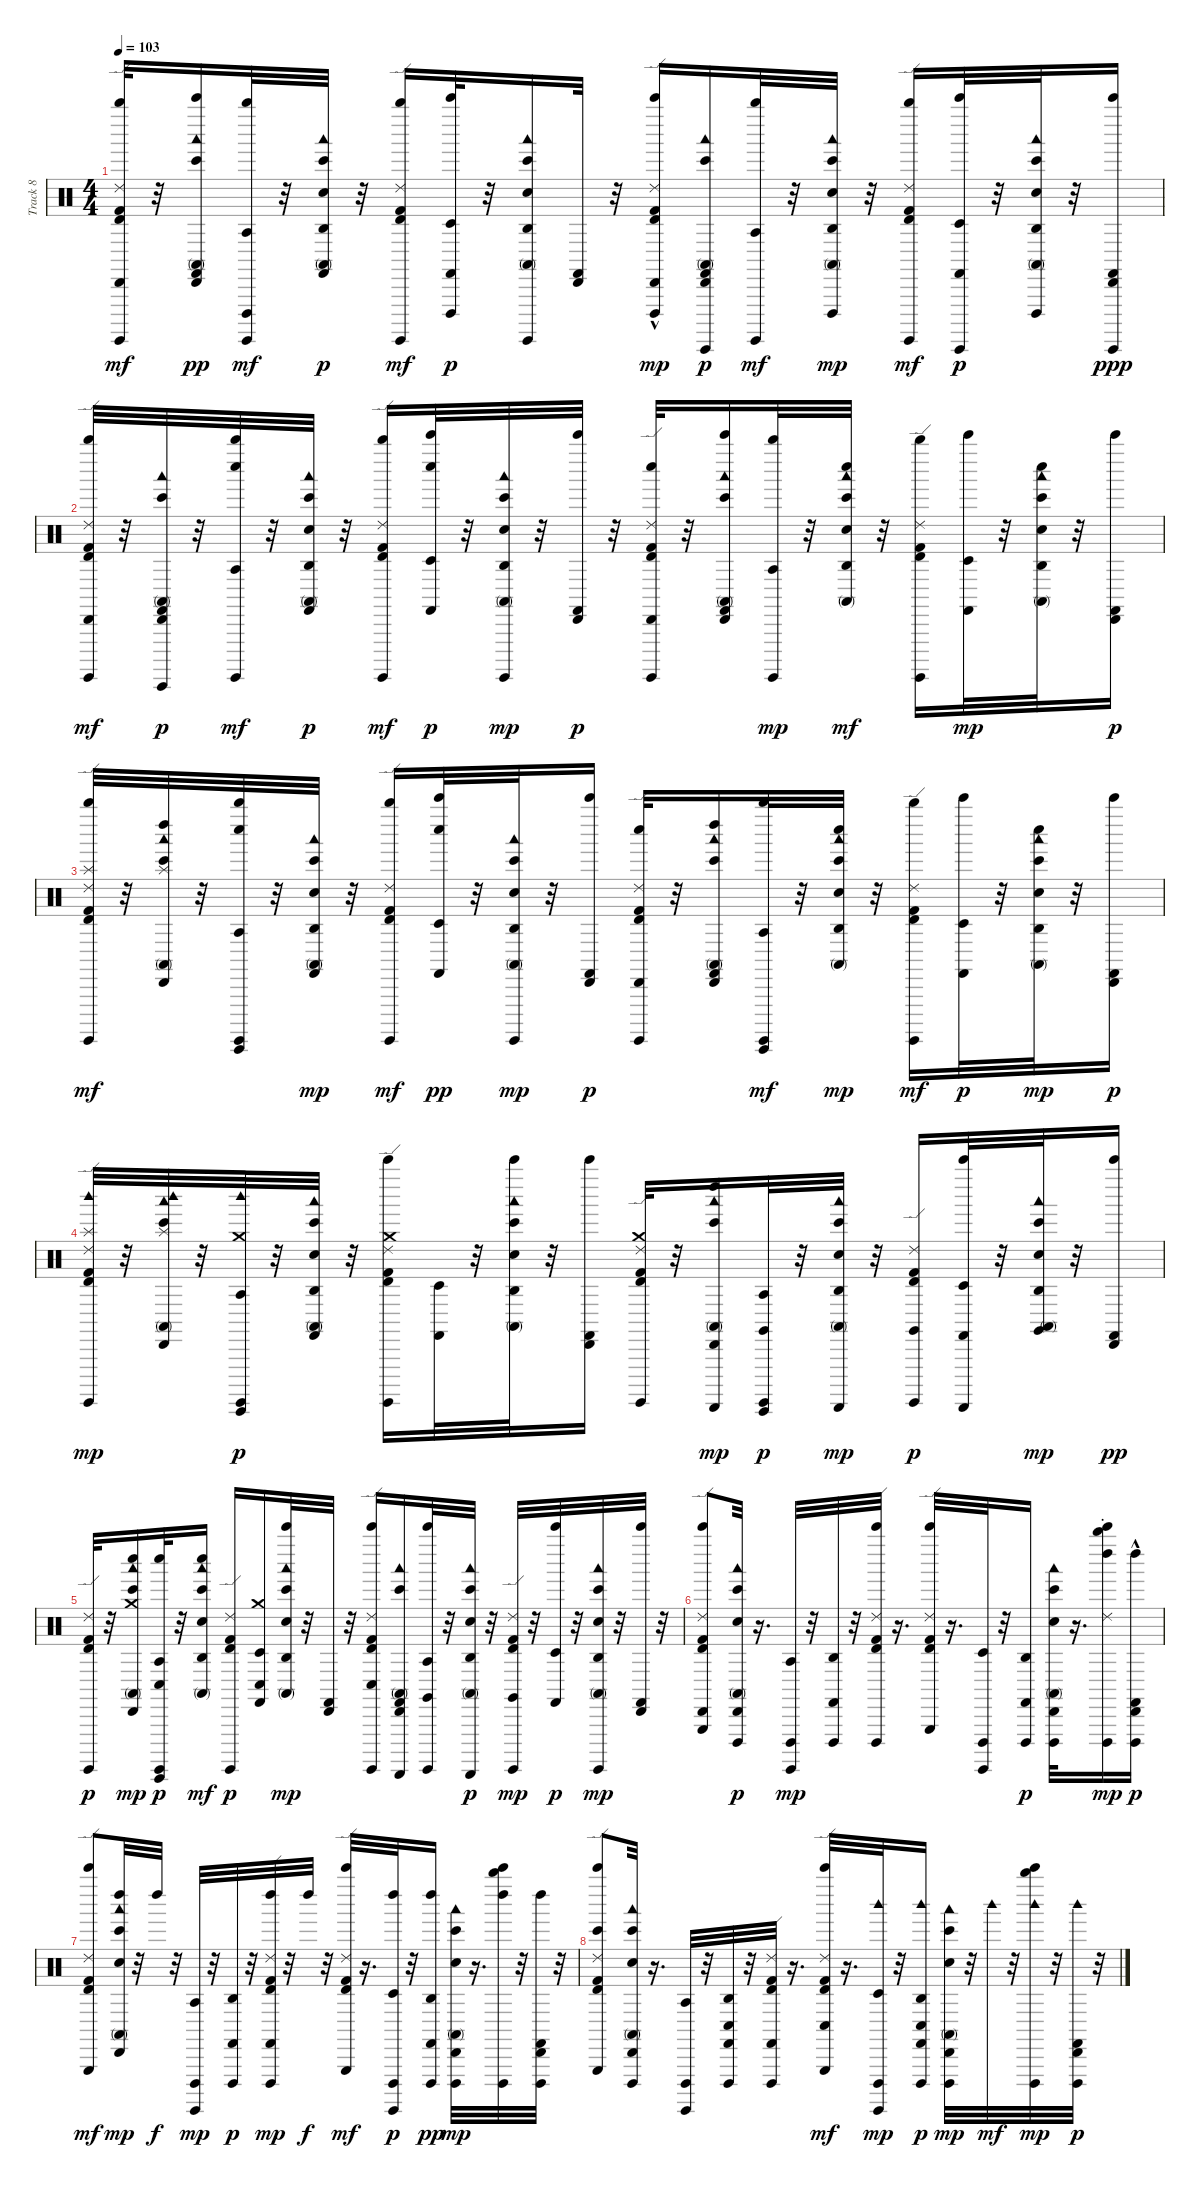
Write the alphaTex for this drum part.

\track ("Track 8" "Track 8") {instrument percussion}
\staff {score}
\articulation defaults
\ts (4 4)
\tempo 103
\clef neutral
\ks c
("Ride (edge) 2" "Cabasa (hit)" "Timbale high (hit)" "Kick (hit) 2" "Surdo (hit)" "Whistle high (hit)").32{dy mf} r.32 ("Bongo High (hit)" "Cabasa (hit)" "Conga high (mute)" "Woodblock low (hit)" "Castanets (hit)" "Bell Tree (hit)").16{dy pp} ("Agogo tow (hit)" "Cuica (open)" "Surdo (hit)" "Whistle high (hit)").32{dy mf} r.32 ("Bongo High (hit)" "Conga high (mute)" "Agogo high (hit)" "Woodblock low (hit)" "Hand Clap (hit)" "Castanets (hit)").32{dy p} r.32 ("Ride (edge) 2" "Timbale high (hit)" "Kick (hit) 2" "Surdo (hit)" "Whistle high (hit)").16{dy mf} ("Timbale low (hit)" "Cuica (open)" "Castanets (hit)" "Bell Tree (hit)").32{dy p} r.32 ("Bongo High (hit)" "Agogo high (hit)" "Conga high (mute)" "Woodblock low (hit)" "Hand Clap (hit)" "Surdo (hit)").16 ("Cabasa (hit)" "Castanets (hit)").32 r.32 ("Ride (edge) 2" "Cabasa (hit)" "Timbale high (hit)" "Kick (hit) 2" "Bell Tree (hit)"{hac} "Cuica (open)").16{dy mp} ("Bongo High (hit)" "Cabasa (hit)" "Conga high (mute)" "Woodblock low (hit)" "Guiro (hit)" "Castanets (hit)").16{dy p} ("Agogo tow (hit)" "Surdo (hit)" "Whistle high (hit)").32{dy mf} r.32 ("Bongo High (hit)" "Conga high (mute)" "Agogo high (hit)" "Woodblock low (hit)" "Hand Clap (hit)" "Cuica (open)").32{dy mp} r.32 ("Ride (edge) 2" "Timbale high (hit)" "Kick (hit) 2" "Surdo (hit)" "Whistle high (hit)").16{dy mf} ("Timbale low (hit)" "Guiro (hit)" "Castanets (hit)" "Bell Tree (hit)").32{dy p} r.32 ("Bongo High (hit)" "Agogo high (hit)" "Conga high (mute)" "Woodblock low (hit)" "Hand Clap (hit)" "Cuica (open)").32 r.32 ("Cabasa (hit)" "Guiro (hit)" "Castanets (hit)" "Bell Tree (hit)").16{dy ppp} |
("Ride (edge) 2" "Cabasa (hit)" "Timbale high (hit)" "Kick (hit) 2" "Surdo (hit)" "Whistle high (hit)").32{dy mf} r.32 ("Bongo High (hit)" "Cabasa (hit)" "Conga high (mute)" "Woodblock low (hit)" "Guiro (hit)" "Castanets (hit)").32{dy p} r.32 ("Agogo tow (hit)" "Whistle low (hit)" "Surdo (hit)" "Whistle high (hit)").32{dy mf} r.32 ("Bongo High (hit)" "Conga high (mute)" "Agogo high (hit)" "Woodblock low (hit)" "Hand Clap (hit)" "Castanets (hit)").32{dy p} r.32 ("Ride (edge) 2" "Timbale high (hit)" "Kick (hit) 2" "Surdo (hit)" "Whistle high (hit)").16{dy mf} ("Timbale low (hit)" "Whistle low (hit)" "Castanets (hit)" "Bell Tree (hit)").32{dy p} r.32 ("Bongo High (hit)" "Agogo high (hit)" "Conga high (mute)" "Woodblock low (hit)" "Hand Clap (hit)" "Surdo (hit)").32{dy mp} r.32 ("Cabasa (hit)" "Castanets (hit)" "Bell Tree (hit)").32{dy p} r.32 ("Ride (edge) 2" "Cabasa (hit)" "Timbale high (hit)" "Kick (hit) 2" "Whistle low (hit)" "Surdo (hit)").32 r.32 ("Bongo High (hit)" "Cabasa (hit)" "Conga high (mute)" "Woodblock low (hit)" "Castanets (hit)" "Bell Tree (hit)").16 ("Agogo tow (hit)" "Surdo (hit)" "Whistle high (hit)").32{dy mp} r.32 ("Bongo High (hit)" "Conga high (mute)" "Agogo high (hit)" "Woodblock low (hit)" "Hand Clap (hit)" "Whistle low (hit)").32{dy mf} r.32 ("Ride (edge) 2" "Timbale high (hit)" "Kick (hit) 2" "Surdo (hit)" "Whistle high (hit)").16 ("Timbale low (hit)" "Castanets (hit)" "Bell Tree (hit)").32{dy mp} r.32 ("Bongo High (hit)" "Conga high (mute)" "Agogo high (hit)" "Woodblock low (hit)" "Hand Clap (hit)" "Whistle low (hit)").32 r.32 ("Cabasa (hit)" "Castanets (hit)" "Bell Tree (hit)").16{dy p} |
("Ride (edge) 2" "Timbale high (hit)" "Kick (hit) 2" "Splash (hit)" "Surdo (hit)" "Whistle high (hit)").32{dy mf} r.32 ("Bongo High (hit)" "Cabasa (hit)" "Conga high (mute)" "Woodblock low (hit)" "Splash (hit)" "Left Maraca (hit)").32 r.32 ("Agogo tow (hit)" "Whistle low (hit)" "Guiro (hit)" "Surdo (hit)" "Whistle high (hit)").32 r.32 ("Bongo High (hit)" "Conga high (mute)" "Agogo high (hit)" "Woodblock low (hit)" "Castanets (hit)" "Hand Clap (hit)").32{dy mp} r.32 ("Ride (edge) 2" "Timbale high (hit)" "Kick (hit) 2" "Surdo (hit)" "Whistle high (hit)").16{dy mf} ("Timbale low (hit)" "Whistle low (hit)" "Castanets (hit)" "Bell Tree (hit)").32{dy pp} r.32 ("Bongo High (hit)" "Agogo high (hit)" "Conga high (mute)" "Woodblock low (hit)" "Hand Clap (hit)" "Surdo (hit)").32{dy mp} r.32 ("Cabasa (hit)" "Castanets (hit)" "Bell Tree (hit)").16{dy p} ("Ride (edge) 2" "Cabasa (hit)" "Timbale high (hit)" "Kick (hit) 2" "Whistle low (hit)" "Surdo (hit)").32 r.32 ("Bongo High (hit)" "Cabasa (hit)" "Conga high (mute)" "Woodblock low (hit)" "Left Maraca (hit)" "Castanets (hit)").16 ("Agogo tow (hit)" "Guiro (hit)" "Surdo (hit)" "Whistle high (hit)").32{dy mf} r.32 ("Bongo High (hit)" "Conga high (mute)" "Agogo high (hit)" "Woodblock low (hit)" "Hand Clap (hit)" "Whistle low (hit)").32{dy mp} r.32 ("Ride (edge) 2" "Timbale high (hit)" "Kick (hit) 2" "Surdo (hit)" "Whistle high (hit)").16{dy mf} ("Timbale low (hit)" "Castanets (hit)" "Bell Tree (hit)").32{dy p} r.32 ("Bongo High (hit)" "Conga high (mute)" "Agogo high (hit)" "Woodblock low (hit)" "Hand Clap (hit)" "Whistle low (hit)").32{dy mp} r.32 ("Cabasa (hit)" "Castanets (hit)" "Bell Tree (hit)").16{dy p} |
("Ride (edge) 2" "Timbale high (hit)" "Kick (hit) 2" "Woodblock high (hit)" "Splash (hit)" "Surdo (hit)").32{dy mp} r.32 ("Bongo High (hit)" "Cabasa (hit)" "Conga high (mute)" "Woodblock low (hit)" "Woodblock high (hit)" "Splash (hit)").32 r.32 ("Agogo tow (hit)" "Woodblock high (hit)" "Guiro (hit)" "Crash medium (hit)" "Surdo (hit)").32{dy p} r.32 ("Bongo High (hit)" "Conga high (mute)" "Agogo high (hit)" "Woodblock low (hit)" "Hand Clap (hit)" "Castanets (hit)").32 r.32 ("Ride (edge) 2" "Timbale high (hit)" "Kick (hit) 2" "Bell Tree (hit)" "Crash medium (hit)" "Surdo (hit)").16 ("Timbale low (hit)" "Castanets (hit)").32 r.32 ("Conga high (mute)" "Bongo High (hit)" "Agogo high (hit)" "Woodblock low (hit)" "Hand Clap (hit)" "Bell Tree (hit)").32 r.32 ("Cabasa (hit)" "Castanets (hit)" "Bell Tree (hit)").16 ("Ride (edge) 2" "Timbale high (hit)" "Kick (hit) 2" "Crash medium (hit)" "Surdo (hit)").32 r.32 ("Conga high (mute)" "Cabasa (hit)" "Bongo High (hit)" "Woodblock low (hit)" "Guiro (scrap-return)" "Left Maraca (hit)").16{dy mp} ("Agogo tow (hit)" "Claves (hit)" "Guiro (hit)" "Surdo (hit)").32{dy p} r.32 ("Conga high (mute)" "Bongo High (hit)" "Agogo high (hit)" "Woodblock low (hit)" "Hand Clap (hit)" "Guiro (scrap-return)").32{dy mp} r.32 ("Ride (edge) 2" "Timbale high (hit)" "Kick (hit) 2" "Claves (hit)" "Surdo (hit)").16{dy p} ("Timbale low (hit)" "Guiro (scrap-return)" "Castanets (hit)" "Bell Tree (hit)").32 r.32 ("Conga high (mute)" "Bongo High (hit)" "Agogo high (hit)" "Woodblock low (hit)" "Hand Clap (hit)" "Claves (hit)").32{dy mp} r.32 ("Cabasa (hit)" "Castanets (hit)" "Bell Tree (hit)").16{dy pp} |
("Ride (edge) 2" "Timbale high (hit)" "Kick (hit) 2" "Surdo (hit)").32{dy p} r.32 ("Bongo High (hit)" "Cabasa (hit)" "Conga high (mute)" "Woodblock low (hit)" "Whistle low (hit)" "Crash medium (hit)").16{dy mp} ("Agogo tow (hit)" "Whistle low (hit)" "Guiro (hit)" "Conga low (hit)" "Surdo (hit)").32{dy p} r.32 ("Conga high (mute)" "Bongo High (hit)" "Agogo high (hit)" "Woodblock low (hit)" "Hand Clap (hit)" "Whistle low (hit)").16{dy mf} ("Ride (edge) 2" "Timbale high (hit)" "Kick (hit) 2" "Surdo (hit)").16{dy p} ("Timbale low (hit)" "Crash medium (hit)" "Conga low (hit)" "Castanets (hit)").16 ("Bongo High (hit)" "Conga high (mute)" "Agogo high (hit)" "Woodblock low (hit)" "Bell Tree (hit)" "Hand Clap (hit)").32{dy mp} r.32 ("Cabasa (hit)" "Castanets (hit)").32 r.32 ("Ride (edge) 2" "Timbale high (hit)" "Kick (hit) 2" "Bell Tree (hit)" "Conga low (hit)" "Surdo (hit)").16 ("Conga high (mute)" "Cabasa (hit)" "Bongo High (hit)" "Woodblock low (hit)" "Guiro (scrap-return)" "Castanets (hit)").16 ("Agogo tow (hit)" "Bell Tree (hit)" "Claves (hit)" "Surdo (hit)").32 r.32 ("Conga high (mute)" "Bongo High (hit)" "Agogo high (hit)" "Woodblock low (hit)" "Hand Clap (hit)" "Guiro (scrap-return)").32{dy p} r.32 ("Ride (edge) 2" "Timbale high (hit)" "Kick (hit) 2" "Claves (hit)" "Surdo (hit)").32{dy mp} r.32 ("Timbale low (hit)" "Castanets (hit)" "Bell Tree (hit)").32{dy p} r.32 ("Bongo High (hit)" "Agogo high (hit)" "Conga high (mute)" "Woodblock low (hit)" "Hand Clap (hit)" "Surdo (hit)").32{dy mp} r.32 ("Cabasa (hit)" "Castanets (hit)" "Bell Tree (hit)").32 r.32 |
("Ride (edge) 2" "Cabasa (hit)" "Timbale high (hit)" "Kick (hit) 2" "Triangle (hit)" "Bell Tree (hit)").8 ("Bongo High (hit)" "Cabasa (hit)" "Conga high (mute)" "Woodblock low (hit)" "Hand Clap (hit)" "Cuica (open)").32{dy p} r.16{d} ("Agogo tow (hit)" "Cuica (open)" "Surdo (hit)").32{dy mp} r.32 ("Agogo high (hit)" "Cuica (open)" "Castanets (hit)").32 r.32 ("Ride (edge) 2" "Timbale high (hit)" "Kick (hit) 2" "Cuica (open)" "Bell Tree (hit)").32 r.16{d} ("Ride (edge) 2" "Timbale high (hit)" "Kick (hit) 2" "Triangle (hit)" "Bell Tree (hit)").32 r.16{d} ("Timbale low (hit)" "Cuica (open)" "Surdo (hit)").32 r.32 ("Agogo high (hit)" "Cuica (open)" "Castanets (hit)").16{dy p} ("Bongo High (hit)" "Conga high (mute)" "Cabasa (hit)" "Woodblock low (hit)" "Electric Snare (hit)" "Cuica (open)").32 r.16{d} ("Whistle high (hit)" "Cuica (open)" "Ride (choke) 2" "Left Maraca (hit)" "Bell Tree (hit)").16{dy mp} ("Cabasa (hit)" "Cuica (open)"{hac} "Left Maraca (hit)" "Castanets (hit)").16{dy p} |
("Ride (edge) 2" "Timbale high (hit)" "Kick (hit) 2" "Triangle (hit)" "Bell Tree (hit)").8{dy mf} ("Bongo High (hit)" "Cabasa (hit)" "Conga high (mute)" "Woodblock low (hit)" "Hand Clap (hit)" "Left Maraca (hit)").32{dy mp} r.32 "Left Maraca (hit)".32{dy f} r.32 ("Agogo tow (hit)" "Cuica (open)" "Surdo (hit)").32{dy mp} r.32 ("Agogo high (hit)" "Cuica (open)" "Castanets (hit)").32{dy p} r.32 ("Ride (edge) 2" "Timbale high (hit)" "Kick (hit) 2" "Cuica (open)" "Left Maraca (hit)" "Castanets (hit)").32{dy mp} r.32 "Left Maraca (hit)".32{dy f} r.32 ("Ride (edge) 2" "Timbale high (hit)" "Kick (hit) 2" "Triangle (hit)" "Bell Tree (hit)").32{dy mf} r.16{d} ("Timbale low (hit)" "Cuica (open)" "Left Maraca (hit)" "Surdo (hit)").32{dy p} r.32 ("Agogo high (hit)" "Cuica (open)" "Left Maraca (hit)" "Castanets (hit)").16{dy pp} ("Bongo High (hit)" "Cabasa (hit)" "Conga high (mute)" "Woodblock low (hit)" "Electric Snare (hit)" "Cuica (open)").32{dy mp} r.16{d} ("Whistle high (hit)" "Cuica (open)" "Left Maraca (hit)" "Bell Tree (hit)").32 r.32 ("Cabasa (hit)" "Cuica (open)" "Left Maraca (hit)" "Castanets (hit)").32 r.32 |
("Ride (edge) 2" "Timbale high (hit)" "Kick (hit) 2" "Triangle (hit)" "Bongo High (hit)" "Bell Tree (hit)").8 ("Bongo High (hit)" "Cabasa (hit)" "Conga high (mute)" "Woodblock low (hit)" "Hand Clap (hit)" "Cuica (open)").32 r.16{d} ("Agogo tow (hit)" "Cuica (open)" "Surdo (hit)").32 r.32 ("Agogo high (hit)" "Cuica (open)" "Conga low (hit)" "Castanets (hit)").32 r.32 ("Ride (edge) 2" "Timbale high (hit)" "Kick (hit) 2" "Cuica (open)" "Castanets (hit)").32 r.16{d} ("Ride (edge) 2" "Timbale high (hit)" "Kick (hit) 2" "Triangle (hit)" "Conga low (hit)" "Bell Tree (hit)").32{dy mf} r.16{d} ("Timbale low (hit)" "Cuica (open)" "Woodblock high (hit)" "Surdo (hit)").32{dy mp} r.32 ("Agogo high (hit)" "Cuica (open)" "Woodblock high (hit)" "Conga low (hit)" "Castanets (hit)").16{dy p} ("Bongo High (hit)" "Conga high (mute)" "Cabasa (hit)" "Woodblock low (hit)" "Electric Snare (hit)" "Cuica (open)").32{dy mp} r.32 "Woodblock high (hit)".32{dy mf} r.32 ("Whistle high (hit)" "Cuica (open)" "Woodblock high (hit)" "Bell Tree (hit)").32{dy mp} r.32 ("Cabasa (hit)" "Cuica (open)" "Woodblock high (hit)" "Castanets (hit)").32{dy p} r.32
